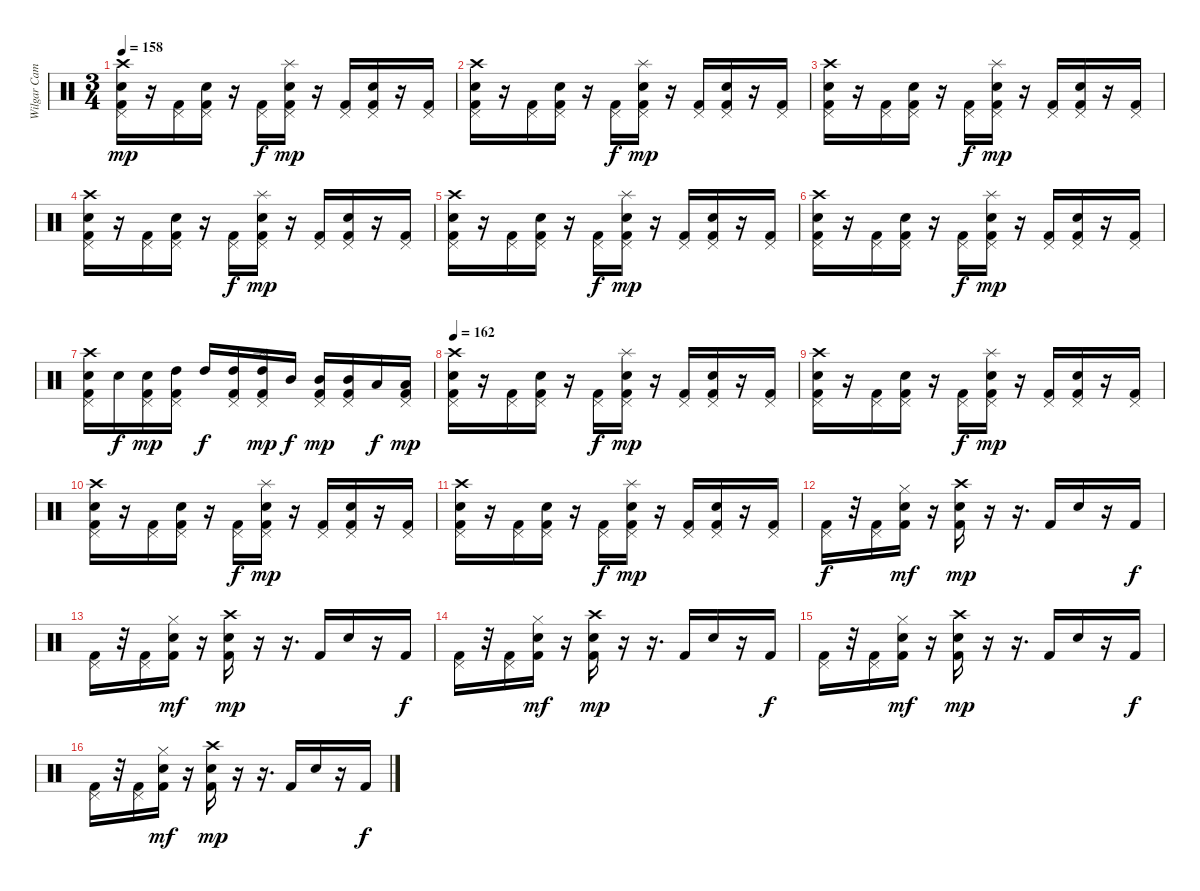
\track ("Wilgar Campbell" "Wilgar Cam") {instrument percussion}
\staff {score}
\articulation defaults
\ts (3 4)
\tempo 158
\clef neutral
\ks c
("Crash high (hit)" "Snare (hit) 2" "Pedal Hi-Hat (hit)" "Kick (hit) 2").16{dy mp} r.16 ("Pedal Hi-Hat (hit)" "Kick (hit) 2").16 ("Snare (hit) 2" "Pedal Hi-Hat (hit)" "Kick (hit) 2").16 r.16 ("Pedal Hi-Hat (hit)" "Kick (hit) 2").16{dy f} ("Splash (hit)" "Snare (hit) 2" "Pedal Hi-Hat (hit)" "Kick (hit) 2").16{dy mp} r.16 ("Pedal Hi-Hat (hit)" "Kick (hit) 2").16 ("Snare (hit) 2" "Pedal Hi-Hat (hit)" "Kick (hit) 2").16 r.16 ("Pedal Hi-Hat (hit)" "Kick (hit) 2").16 |
("Crash high (hit)" "Snare (hit) 2" "Pedal Hi-Hat (hit)" "Kick (hit) 2").16 r.16 ("Pedal Hi-Hat (hit)" "Kick (hit) 2").16 ("Snare (hit) 2" "Pedal Hi-Hat (hit)" "Kick (hit) 2").16 r.16 ("Pedal Hi-Hat (hit)" "Kick (hit) 2").16{dy f} ("Splash (hit)" "Snare (hit) 2" "Pedal Hi-Hat (hit)" "Kick (hit) 2").16{dy mp} r.16 ("Pedal Hi-Hat (hit)" "Kick (hit) 2").16 ("Snare (hit) 2" "Pedal Hi-Hat (hit)" "Kick (hit) 2").16 r.16 ("Pedal Hi-Hat (hit)" "Kick (hit) 2").16 |
("Crash high (hit)" "Snare (hit) 2" "Pedal Hi-Hat (hit)" "Kick (hit) 2").16 r.16 ("Pedal Hi-Hat (hit)" "Kick (hit) 2").16 ("Snare (hit) 2" "Pedal Hi-Hat (hit)" "Kick (hit) 2").16 r.16 ("Pedal Hi-Hat (hit)" "Kick (hit) 2").16{dy f} ("Splash (hit)" "Snare (hit) 2" "Pedal Hi-Hat (hit)" "Kick (hit) 2").16{dy mp} r.16 ("Pedal Hi-Hat (hit)" "Kick (hit) 2").16 ("Snare (hit) 2" "Pedal Hi-Hat (hit)" "Kick (hit) 2").16 r.16 ("Pedal Hi-Hat (hit)" "Kick (hit) 2").16 |
("Crash high (hit)" "Snare (hit) 2" "Pedal Hi-Hat (hit)" "Kick (hit) 2").16 r.16 ("Pedal Hi-Hat (hit)" "Kick (hit) 2").16 ("Snare (hit) 2" "Pedal Hi-Hat (hit)" "Kick (hit) 2").16 r.16 ("Pedal Hi-Hat (hit)" "Kick (hit) 2").16{dy f} ("Splash (hit)" "Snare (hit) 2" "Pedal Hi-Hat (hit)" "Kick (hit) 2").16{dy mp} r.16 ("Pedal Hi-Hat (hit)" "Kick (hit) 2").16 ("Snare (hit) 2" "Pedal Hi-Hat (hit)" "Kick (hit) 2").16 r.16 ("Pedal Hi-Hat (hit)" "Kick (hit) 2").16 |
("Crash high (hit)" "Snare (hit) 2" "Pedal Hi-Hat (hit)" "Kick (hit) 2").16 r.16 ("Pedal Hi-Hat (hit)" "Kick (hit) 2").16 ("Snare (hit) 2" "Pedal Hi-Hat (hit)" "Kick (hit) 2").16 r.16 ("Pedal Hi-Hat (hit)" "Kick (hit) 2").16{dy f} ("Splash (hit)" "Snare (hit) 2" "Pedal Hi-Hat (hit)" "Kick (hit) 2").16{dy mp} r.16 ("Pedal Hi-Hat (hit)" "Kick (hit) 2").16 ("Snare (hit) 2" "Pedal Hi-Hat (hit)" "Kick (hit) 2").16 r.16 ("Pedal Hi-Hat (hit)" "Kick (hit) 2").16 |
("Crash high (hit)" "Snare (hit) 2" "Pedal Hi-Hat (hit)" "Kick (hit) 2").16 r.16 ("Pedal Hi-Hat (hit)" "Kick (hit) 2").16 ("Snare (hit) 2" "Pedal Hi-Hat (hit)" "Kick (hit) 2").16 r.16 ("Pedal Hi-Hat (hit)" "Kick (hit) 2").16{dy f} ("Splash (hit)" "Snare (hit) 2" "Pedal Hi-Hat (hit)" "Kick (hit) 2").16{dy mp} r.16 ("Pedal Hi-Hat (hit)" "Kick (hit) 2").16 ("Snare (hit) 2" "Pedal Hi-Hat (hit)" "Kick (hit) 2").16 r.16 ("Pedal Hi-Hat (hit)" "Kick (hit) 2").16 |
("Crash high (hit)" "Snare (hit) 2" "Pedal Hi-Hat (hit)" "Kick (hit) 2").16 "Snare (hit) 2".16{dy f} ("Snare (hit) 2" "Pedal Hi-Hat (hit)" "Kick (hit) 2").16{dy mp} ("High Tom (hit)" "Pedal Hi-Hat (hit)" "Kick (hit) 2").16 "High Tom (hit)".16{dy f} ("High Tom (hit)" "Pedal Hi-Hat (hit)" "Kick (hit) 2").16 ("Splash (hit)" "High Tom (hit)" "Pedal Hi-Hat (hit)" "Kick (hit) 2").16{dy mp} "Mid Tom (hit)".16{dy f} ("Mid Tom (hit)" "Pedal Hi-Hat (hit)" "Kick (hit) 2").16{dy mp} ("Mid Tom (hit)" "Pedal Hi-Hat (hit)" "Kick (hit) 2").16 "Low Tom (hit)".16{dy f} ("Low Tom (hit)" "Pedal Hi-Hat (hit)" "Kick (hit) 2").16{dy mp} |
\tempo 162
("Crash high (hit)" "Snare (hit) 2" "Pedal Hi-Hat (hit)" "Kick (hit) 2").16 r.16 ("Pedal Hi-Hat (hit)" "Kick (hit) 2").16 ("Snare (hit) 2" "Pedal Hi-Hat (hit)" "Kick (hit) 2").16 r.16 ("Pedal Hi-Hat (hit)" "Kick (hit) 2").16{dy f} ("Splash (hit)" "Snare (hit) 2" "Pedal Hi-Hat (hit)" "Kick (hit) 2").16{dy mp} r.16 ("Pedal Hi-Hat (hit)" "Kick (hit) 2").16 ("Snare (hit) 2" "Pedal Hi-Hat (hit)" "Kick (hit) 2").16 r.16 ("Pedal Hi-Hat (hit)" "Kick (hit) 2").16 |
("Crash high (hit)" "Snare (hit) 2" "Pedal Hi-Hat (hit)" "Kick (hit) 2").16 r.16 ("Pedal Hi-Hat (hit)" "Kick (hit) 2").16 ("Snare (hit) 2" "Pedal Hi-Hat (hit)" "Kick (hit) 2").16 r.16 ("Pedal Hi-Hat (hit)" "Kick (hit) 2").16{dy f} ("Splash (hit)" "Snare (hit) 2" "Pedal Hi-Hat (hit)" "Kick (hit) 2").16{dy mp} r.16 ("Pedal Hi-Hat (hit)" "Kick (hit) 2").16 ("Snare (hit) 2" "Pedal Hi-Hat (hit)" "Kick (hit) 2").16 r.16 ("Pedal Hi-Hat (hit)" "Kick (hit) 2").16 |
("Crash high (hit)" "Snare (hit) 2" "Pedal Hi-Hat (hit)" "Kick (hit) 2").16 r.16 ("Pedal Hi-Hat (hit)" "Kick (hit) 2").16 ("Snare (hit) 2" "Pedal Hi-Hat (hit)" "Kick (hit) 2").16 r.16 ("Pedal Hi-Hat (hit)" "Kick (hit) 2").16{dy f} ("Splash (hit)" "Snare (hit) 2" "Pedal Hi-Hat (hit)" "Kick (hit) 2").16{dy mp} r.16 ("Pedal Hi-Hat (hit)" "Kick (hit) 2").16 ("Snare (hit) 2" "Pedal Hi-Hat (hit)" "Kick (hit) 2").16 r.16 ("Pedal Hi-Hat (hit)" "Kick (hit) 2").16 |
("Crash high (hit)" "Snare (hit) 2" "Pedal Hi-Hat (hit)" "Kick (hit) 2").16 r.16 ("Pedal Hi-Hat (hit)" "Kick (hit) 2").16 ("Snare (hit) 2" "Pedal Hi-Hat (hit)" "Kick (hit) 2").16 r.16 ("Pedal Hi-Hat (hit)" "Kick (hit) 2").16{dy f} ("Splash (hit)" "Snare (hit) 2" "Pedal Hi-Hat (hit)" "Kick (hit) 2").16{dy mp} r.16 ("Pedal Hi-Hat (hit)" "Kick (hit) 2").16 ("Snare (hit) 2" "Pedal Hi-Hat (hit)" "Kick (hit) 2").16 r.16 ("Pedal Hi-Hat (hit)" "Kick (hit) 2").16 |
("Pedal Hi-Hat (hit)" "Kick (hit) 2").16{dy f} r.32 ("Pedal Hi-Hat (hit)" "Kick (hit) 2").16 ("Snare (hit) 2" "Hi-Hat (closed)" "Kick (hit) 2").16{dy mf} r.16 ("Crash high (hit)" "Snare (hit) 2" "Kick (hit) 2").16{dy mp} r.16 r.16{d} "Kick (hit) 2".16 "Electric Snare (hit)".16 r.16 "Kick (hit) 2".16{dy f} |
("Pedal Hi-Hat (hit)" "Kick (hit) 2").16 r.32 ("Pedal Hi-Hat (hit)" "Kick (hit) 2").16 ("Snare (hit) 2" "Hi-Hat (closed)" "Kick (hit) 2").16{dy mf} r.16 ("Crash high (hit)" "Snare (hit) 2" "Kick (hit) 2").16{dy mp} r.16 r.16{d} "Kick (hit) 2".16 "Electric Snare (hit)".16 r.16 "Kick (hit) 2".16{dy f} |
("Pedal Hi-Hat (hit)" "Kick (hit) 2").16 r.32 ("Pedal Hi-Hat (hit)" "Kick (hit) 2").16 ("Snare (hit) 2" "Hi-Hat (closed)" "Kick (hit) 2").16{dy mf} r.16 ("Crash high (hit)" "Snare (hit) 2" "Kick (hit) 2").16{dy mp} r.16 r.16{d} "Kick (hit) 2".16 "Electric Snare (hit)".16 r.16 "Kick (hit) 2".16{dy f} |
("Pedal Hi-Hat (hit)" "Kick (hit) 2").16 r.32 ("Pedal Hi-Hat (hit)" "Kick (hit) 2").16 ("Snare (hit) 2" "Hi-Hat (closed)" "Kick (hit) 2").16{dy mf} r.16 ("Crash high (hit)" "Snare (hit) 2" "Kick (hit) 2").16{dy mp} r.16 r.16{d} "Kick (hit) 2".16 "Electric Snare (hit)".16 r.16 "Kick (hit) 2".16{dy f} |
("Pedal Hi-Hat (hit)" "Kick (hit) 2").16 r.32 ("Pedal Hi-Hat (hit)" "Kick (hit) 2").16 ("Snare (hit) 2" "Hi-Hat (closed)" "Kick (hit) 2").16{dy mf} r.16 ("Crash high (hit)" "Snare (hit) 2" "Kick (hit) 2").16{dy mp} r.16 r.16{d} "Kick (hit) 2".16 "Electric Snare (hit)".16 r.16 "Kick (hit) 2".16{dy f}
